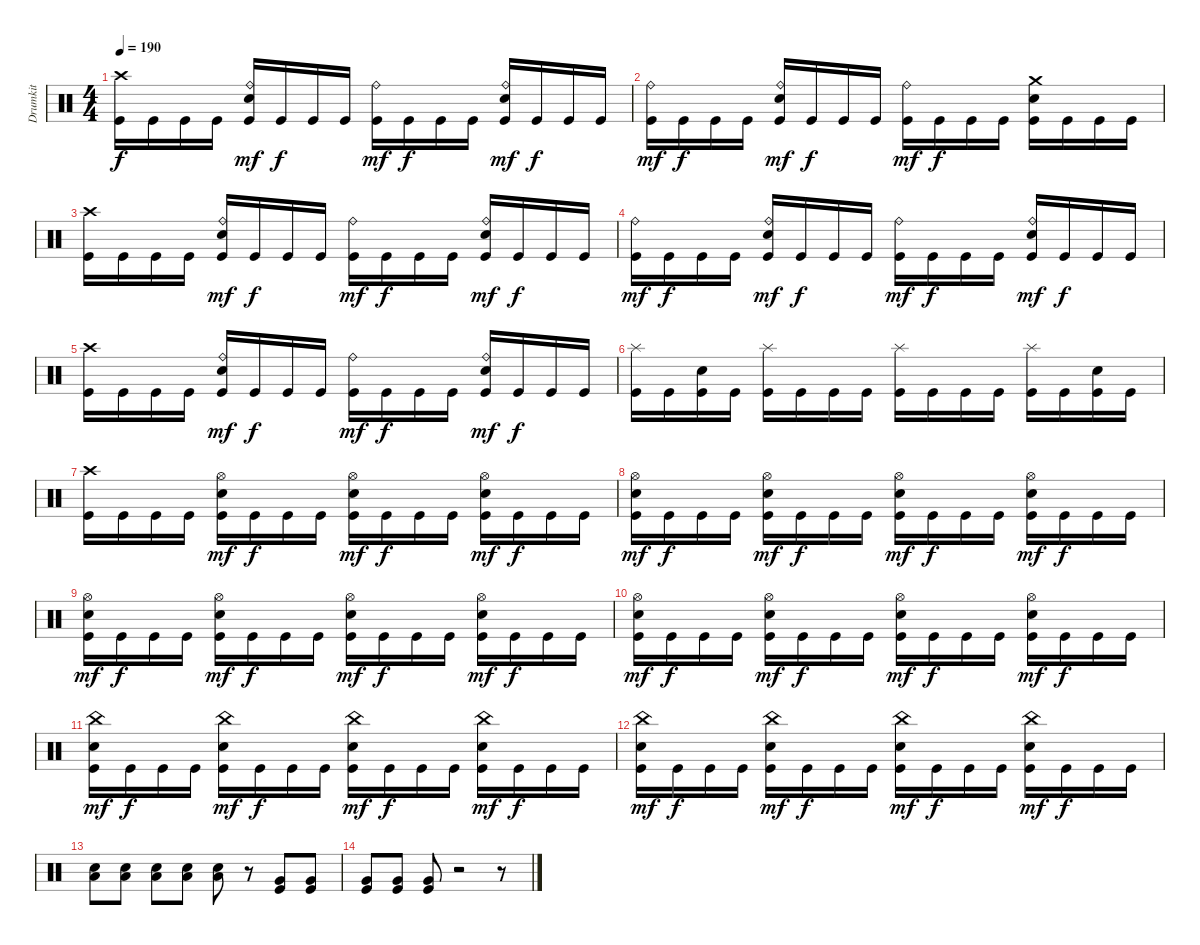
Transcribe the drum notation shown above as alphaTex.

\track ("Drumkit" "Drumkit") {instrument percussion}
\staff {score}
\articulation defaults
\ts (4 4)
\tempo 190
\clef neutral
\ks c
("Crash high (hit)" "Kick (hit)").16{dy f} "Kick (hit)".16 "Kick (hit)".16 "Kick (hit)".16 ("Ride (bell)" "Snare (hit) 2" "Kick (hit)").16{dy mf} "Kick (hit)".16{dy f} "Kick (hit)".16 "Kick (hit)".16 ("Ride (bell)" "Kick (hit)").16{dy mf} "Kick (hit)".16{dy f} "Kick (hit)".16 "Kick (hit)".16 ("Ride (bell)" "Snare (hit) 2" "Kick (hit)").16{dy mf} "Kick (hit)".16{dy f} "Kick (hit)".16 "Kick (hit)".16 |
("Ride (bell)" "Kick (hit)").16{dy mf} "Kick (hit)".16{dy f} "Kick (hit)".16 "Kick (hit)".16 ("Ride (bell)" "Snare (hit) 2" "Kick (hit)").16{dy mf} "Kick (hit)".16{dy f} "Kick (hit)".16 "Kick (hit)".16 ("Ride (bell)" "Kick (hit)").16{dy mf} "Kick (hit)".16{dy f} "Kick (hit)".16 "Kick (hit)".16 ("Crash medium (hit)" "Snare (hit) 2" "Kick (hit)").16 "Kick (hit)".16 "Kick (hit)".16 "Kick (hit)".16 |
("Crash high (hit)" "Kick (hit)").16 "Kick (hit)".16 "Kick (hit)".16 "Kick (hit)".16 ("Ride (bell)" "Snare (hit) 2" "Kick (hit)").16{dy mf} "Kick (hit)".16{dy f} "Kick (hit)".16 "Kick (hit)".16 ("Ride (bell)" "Kick (hit)").16{dy mf} "Kick (hit)".16{dy f} "Kick (hit)".16 "Kick (hit)".16 ("Ride (bell)" "Snare (hit) 2" "Kick (hit)").16{dy mf} "Kick (hit)".16{dy f} "Kick (hit)".16 "Kick (hit)".16 |
("Ride (bell)" "Kick (hit)").16{dy mf} "Kick (hit)".16{dy f} "Kick (hit)".16 "Kick (hit)".16 ("Ride (bell)" "Snare (hit) 2" "Kick (hit)").16{dy mf} "Kick (hit)".16{dy f} "Kick (hit)".16 "Kick (hit)".16 ("Ride (bell)" "Kick (hit)").16{dy mf} "Kick (hit)".16{dy f} "Kick (hit)".16 "Kick (hit)".16 ("Ride (bell)" "Snare (hit) 2" "Kick (hit)").16{dy mf} "Kick (hit)".16{dy f} "Kick (hit)".16 "Kick (hit)".16 |
("Crash high (hit)" "Kick (hit)").16 "Kick (hit)".16 "Kick (hit)".16 "Kick (hit)".16 ("Ride (bell)" "Snare (hit) 2" "Kick (hit)").16{dy mf} "Kick (hit)".16{dy f} "Kick (hit)".16 "Kick (hit)".16 ("Ride (bell)" "Kick (hit)").16{dy mf} "Kick (hit)".16{dy f} "Kick (hit)".16 "Kick (hit)".16 ("Ride (bell)" "Snare (hit) 2" "Kick (hit)").16{dy mf} "Kick (hit)".16{dy f} "Kick (hit)".16 "Kick (hit)".16 |
("Splash (hit)" "Kick (hit)").16 "Kick (hit)".16 ("Snare (hit) 2" "Kick (hit)").16 "Kick (hit)".16 ("Splash (hit)" "Kick (hit)").16 "Kick (hit)".16 "Kick (hit)".16 "Kick (hit)".16 ("Splash (hit)" "Kick (hit)").16 "Kick (hit)".16 "Kick (hit)".16 "Kick (hit)".16 ("Splash (hit)" "Kick (hit)").16 "Kick (hit)".16 ("Snare (hit) 2" "Kick (hit)").16 "Kick (hit)".16 |
("Crash high (hit)" "Kick (hit)").16 "Kick (hit)".16 "Kick (hit)".16 "Kick (hit)".16 ("Hi-Hat (open)" "Snare (hit) 2" "Kick (hit)").16{dy mf} "Kick (hit)".16{dy f} "Kick (hit)".16 "Kick (hit)".16 ("Hi-Hat (open)" "Snare (hit) 2" "Kick (hit)").16{dy mf} "Kick (hit)".16{dy f} "Kick (hit)".16 "Kick (hit)".16 ("Hi-Hat (open)" "Snare (hit) 2" "Kick (hit)").16{dy mf} "Kick (hit)".16{dy f} "Kick (hit)".16 "Kick (hit)".16 |
("Hi-Hat (open)" "Snare (hit) 2" "Kick (hit)").16{dy mf} "Kick (hit)".16{dy f} "Kick (hit)".16 "Kick (hit)".16 ("Hi-Hat (open)" "Snare (hit) 2" "Kick (hit)").16{dy mf} "Kick (hit)".16{dy f} "Kick (hit)".16 "Kick (hit)".16 ("Hi-Hat (open)" "Snare (hit) 2" "Kick (hit)").16{dy mf} "Kick (hit)".16{dy f} "Kick (hit)".16 "Kick (hit)".16 ("Hi-Hat (open)" "Snare (hit) 2" "Kick (hit)").16{dy mf} "Kick (hit)".16{dy f} "Kick (hit)".16 "Kick (hit)".16 |
("Hi-Hat (open)" "Snare (hit) 2" "Kick (hit)").16{dy mf} "Kick (hit)".16{dy f} "Kick (hit)".16 "Kick (hit)".16 ("Hi-Hat (open)" "Snare (hit) 2" "Kick (hit)").16{dy mf} "Kick (hit)".16{dy f} "Kick (hit)".16 "Kick (hit)".16 ("Hi-Hat (open)" "Snare (hit) 2" "Kick (hit)").16{dy mf} "Kick (hit)".16{dy f} "Kick (hit)".16 "Kick (hit)".16 ("Hi-Hat (open)" "Snare (hit) 2" "Kick (hit)").16{dy mf} "Kick (hit)".16{dy f} "Kick (hit)".16 "Kick (hit)".16 |
("Hi-Hat (open)" "Snare (hit) 2" "Kick (hit)").16{dy mf} "Kick (hit)".16{dy f} "Kick (hit)".16 "Kick (hit)".16 ("Hi-Hat (open)" "Snare (hit) 2" "Kick (hit)").16{dy mf} "Kick (hit)".16{dy f} "Kick (hit)".16 "Kick (hit)".16 ("Hi-Hat (open)" "Snare (hit) 2" "Kick (hit)").16{dy mf} "Kick (hit)".16{dy f} "Kick (hit)".16 "Kick (hit)".16 ("Hi-Hat (open)" "Snare (hit) 2" "Kick (hit)").16{dy mf} "Kick (hit)".16{dy f} "Kick (hit)".16 "Kick (hit)".16 |
("China (hit)" "Snare (hit) 2" "Kick (hit)").16{dy mf} "Kick (hit)".16{dy f} "Kick (hit)".16 "Kick (hit)".16 ("China (hit)" "Snare (hit) 2" "Kick (hit)").16{dy mf} "Kick (hit)".16{dy f} "Kick (hit)".16 "Kick (hit)".16 ("China (hit)" "Snare (hit) 2" "Kick (hit)").16{dy mf} "Kick (hit)".16{dy f} "Kick (hit)".16 "Kick (hit)".16 ("China (hit)" "Snare (hit) 2" "Kick (hit)").16{dy mf} "Kick (hit)".16{dy f} "Kick (hit)".16 "Kick (hit)".16 |
("China (hit)" "Snare (hit) 2" "Kick (hit)").16{dy mf} "Kick (hit)".16{dy f} "Kick (hit)".16 "Kick (hit)".16 ("China (hit)" "Snare (hit) 2" "Kick (hit)").16{dy mf} "Kick (hit)".16{dy f} "Kick (hit)".16 "Kick (hit)".16 ("China (hit)" "Snare (hit) 2" "Kick (hit)").16{dy mf} "Kick (hit)".16{dy f} "Kick (hit)".16 "Kick (hit)".16 ("China (hit)" "Snare (hit) 2" "Kick (hit)").16{dy mf} "Kick (hit)".16{dy f} "Kick (hit)".16 "Kick (hit)".16 |
("Snare (hit) 2" "Low Tom (hit)").8 ("Snare (hit) 2" "Low Tom (hit)").8 ("Snare (hit) 2" "Low Tom (hit)").8 ("Snare (hit) 2" "Low Tom (hit)").8 ("Snare (hit) 2" "Low Tom (hit)").8 r.8 ("Kick (hit)" "Very Low Tom (hit)").8 ("Kick (hit)" "Very Low Tom (hit)").8 |
("Kick (hit)" "Very Low Tom (hit)").8 ("Kick (hit)" "Very Low Tom (hit)").8 ("Kick (hit)" "Very Low Tom (hit)").8 r.2 r.8
